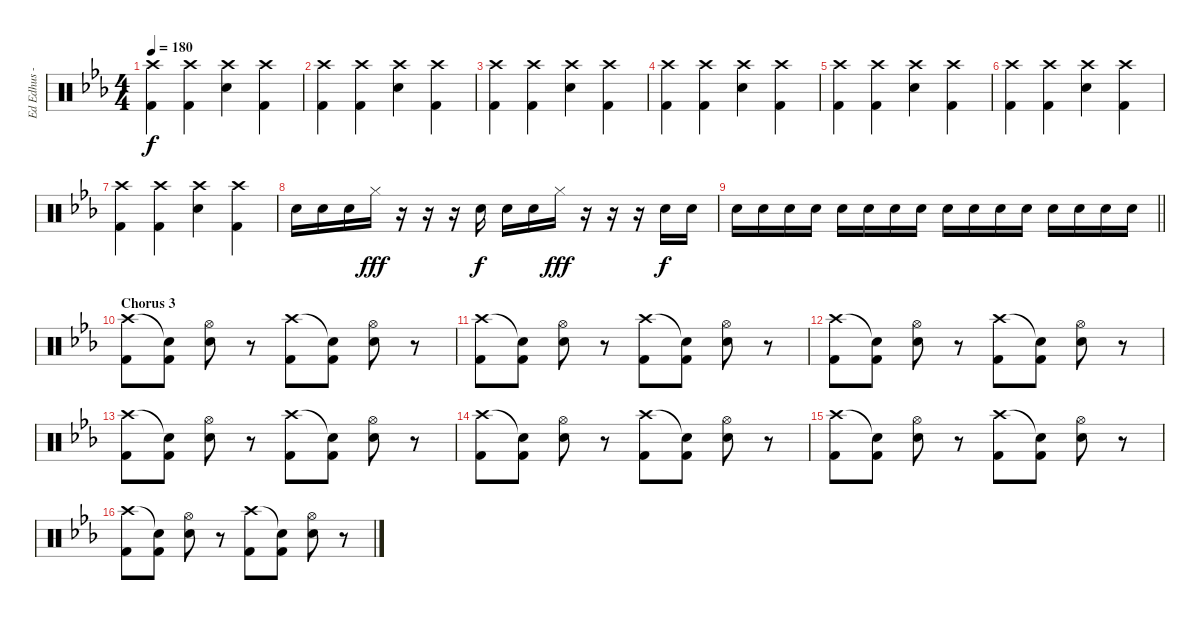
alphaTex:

\track ("Ed Edhus - Drums" "Ed Edhus -") {instrument percussion bank 127}
\staff {score}
\articulation defaults
\ts (4 4)
\tempo 180
\clef neutral
\ks eb
("Crash high (hit)" "Kick (hit) 2").4{dy f} ("Crash high (hit)" "Kick (hit) 2").4 ("Crash high (hit)" "Snare (hit) 2").4 ("Crash high (hit)" "Kick (hit) 2").4 |
("Crash high (hit)" "Kick (hit) 2").4 ("Crash high (hit)" "Kick (hit) 2").4 ("Crash high (hit)" "Snare (hit) 2").4 ("Crash high (hit)" "Kick (hit) 2").4 |
("Crash high (hit)" "Kick (hit) 2").4 ("Crash high (hit)" "Kick (hit) 2").4 ("Crash high (hit)" "Snare (hit) 2").4 ("Crash high (hit)" "Kick (hit) 2").4 |
("Crash high (hit)" "Kick (hit) 2").4 ("Crash high (hit)" "Kick (hit) 2").4 ("Crash high (hit)" "Snare (hit) 2").4 ("Crash high (hit)" "Kick (hit) 2").4 |
("Crash high (hit)" "Kick (hit) 2").4 ("Crash high (hit)" "Kick (hit) 2").4 ("Crash high (hit)" "Snare (hit) 2").4 ("Crash high (hit)" "Kick (hit) 2").4 |
("Crash high (hit)" "Kick (hit) 2").4 ("Crash high (hit)" "Kick (hit) 2").4 ("Crash high (hit)" "Snare (hit) 2").4 ("Crash high (hit)" "Kick (hit) 2").4 |
("Crash high (hit)" "Kick (hit) 2").4 ("Crash high (hit)" "Kick (hit) 2").4 ("Crash high (hit)" "Snare (hit) 2").4 ("Crash high (hit)" "Kick (hit) 2").4 |
"Snare (hit) 2".16 "Snare (hit) 2".16 "Snare (hit) 2".16 "Hi-Hat (closed)".16{dy fff} r.16 r.16 r.16 "Snare (hit) 2".16{dy f} "Snare (hit) 2".16 "Snare (hit) 2".16 "Hi-Hat (closed)".16{dy fff} r.16 r.16 r.16 "Snare (hit) 2".16{dy f} "Snare (hit) 2".16 |
\barLineRight lightlight "Snare (hit) 2".16 "Snare (hit) 2".16 "Snare (hit) 2".16 "Snare (hit) 2".16 "Snare (hit) 2".16 "Snare (hit) 2".16 "Snare (hit) 2".16 "Snare (hit) 2".16 "Snare (hit) 2".16 "Snare (hit) 2".16 "Snare (hit) 2".16 "Snare (hit) 2".16 "Snare (hit) 2".16 "Snare (hit) 2".16 "Snare (hit) 2".16 "Snare (hit) 2".16
|
\section ("" "Chorus 3")
("Crash high (hit)" "Kick (hit) 2").8 ("Snare (hit)"{t} "Kick (hit) 2").8 ("Hi-Hat (open)" "Snare (hit) 2").8 r.8 ("Crash high (hit)" "Kick (hit) 2").8 ("Snare (hit)"{t} "Kick (hit) 2").8 ("Hi-Hat (open)" "Snare (hit) 2").8 r.8 |
("Crash high (hit)" "Kick (hit) 2").8 ("Snare (hit)"{t} "Kick (hit) 2").8 ("Hi-Hat (open)" "Snare (hit) 2").8 r.8 ("Crash high (hit)" "Kick (hit) 2").8 ("Snare (hit)"{t} "Kick (hit) 2").8 ("Hi-Hat (open)" "Snare (hit) 2").8 r.8 |
("Crash high (hit)" "Kick (hit) 2").8 ("Snare (hit)"{t} "Kick (hit) 2").8 ("Hi-Hat (open)" "Snare (hit) 2").8 r.8 ("Crash high (hit)" "Kick (hit) 2").8 ("Snare (hit)"{t} "Kick (hit) 2").8 ("Hi-Hat (open)" "Snare (hit) 2").8 r.8 |
("Crash high (hit)" "Kick (hit) 2").8 ("Snare (hit)"{t} "Kick (hit) 2").8 ("Hi-Hat (open)" "Snare (hit) 2").8 r.8 ("Crash high (hit)" "Kick (hit) 2").8 ("Snare (hit)"{t} "Kick (hit) 2").8 ("Hi-Hat (open)" "Snare (hit) 2").8 r.8 |
("Crash high (hit)" "Kick (hit) 2").8 ("Snare (hit)"{t} "Kick (hit) 2").8 ("Hi-Hat (open)" "Snare (hit) 2").8 r.8 ("Crash high (hit)" "Kick (hit) 2").8 ("Snare (hit)"{t} "Kick (hit) 2").8 ("Hi-Hat (open)" "Snare (hit) 2").8 r.8 |
("Crash high (hit)" "Kick (hit) 2").8 ("Snare (hit)"{t} "Kick (hit) 2").8 ("Hi-Hat (open)" "Snare (hit) 2").8 r.8 ("Crash high (hit)" "Kick (hit) 2").8 ("Snare (hit)"{t} "Kick (hit) 2").8 ("Hi-Hat (open)" "Snare (hit) 2").8 r.8 |
("Crash high (hit)" "Kick (hit) 2").8 ("Snare (hit)"{t} "Kick (hit) 2").8 ("Hi-Hat (open)" "Snare (hit) 2").8 r.8 ("Crash high (hit)" "Kick (hit) 2").8 ("Snare (hit)"{t} "Kick (hit) 2").8 ("Hi-Hat (open)" "Snare (hit) 2").8 r.8
